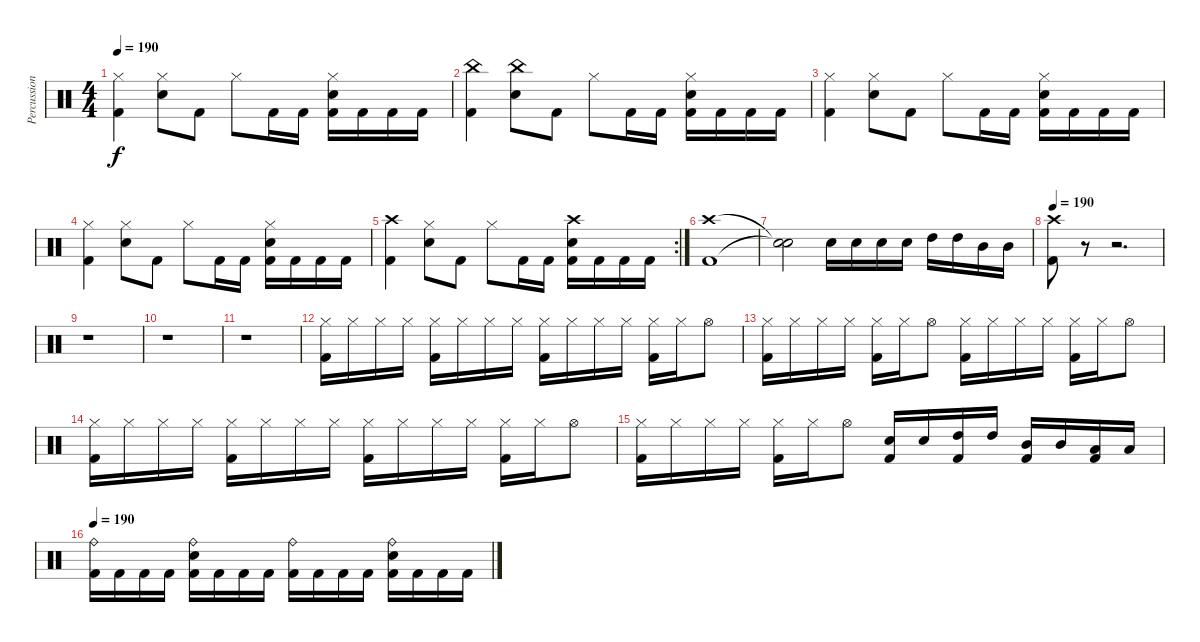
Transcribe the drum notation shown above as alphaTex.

\track ("Percussion" "Percussion") {instrument percussion}
\staff {score}
\articulation defaults
\ts (4 4)
\tempo 190
\clef neutral
\ks c
("Hi-Hat (closed)" "Kick (hit) 2").4{dy f} ("Hi-Hat (closed)" "Snare (hit) 2").8 "Kick (hit) 2".8 "Hi-Hat (closed)".8 "Kick (hit) 2".16 "Kick (hit) 2".16 ("Hi-Hat (closed)" "Snare (hit) 2" "Kick (hit) 2").16 "Kick (hit) 2".16 "Kick (hit) 2".16 "Kick (hit) 2".16 |
("China (hit)" "Kick (hit) 2").4 ("China (hit)" "Snare (hit) 2").8 "Kick (hit) 2".8 "Hi-Hat (closed)".8 "Kick (hit) 2".16 "Kick (hit) 2".16 ("Hi-Hat (closed)" "Snare (hit) 2" "Kick (hit) 2").16 "Kick (hit) 2".16 "Kick (hit) 2".16 "Kick (hit) 2".16 |
("Hi-Hat (closed)" "Kick (hit) 2").4 ("Hi-Hat (closed)" "Snare (hit) 2").8 "Kick (hit) 2".8 "Hi-Hat (closed)".8 "Kick (hit) 2".16 "Kick (hit) 2".16 ("Hi-Hat (closed)" "Snare (hit) 2" "Kick (hit) 2").16 "Kick (hit) 2".16 "Kick (hit) 2".16 "Kick (hit) 2".16 |
("Hi-Hat (closed)" "Kick (hit) 2").4 ("Hi-Hat (closed)" "Snare (hit) 2").8 "Kick (hit) 2".8 "Hi-Hat (closed)".8 "Kick (hit) 2".16 "Kick (hit) 2".16 ("Hi-Hat (closed)" "Snare (hit) 2" "Kick (hit) 2").16 "Kick (hit) 2".16 "Kick (hit) 2".16 "Kick (hit) 2".16 |
\rc 2
("Crash high (hit)" "Kick (hit) 2").4 ("Hi-Hat (closed)" "Snare (hit) 2").8 "Kick (hit) 2".8 "Hi-Hat (closed)".8 "Kick (hit) 2".16 "Kick (hit) 2".16 ("Crash high (hit)" "Snare (hit) 2" "Kick (hit) 2").16 "Kick (hit) 2".16 "Kick (hit) 2".16 "Kick (hit) 2".16 |
("Kick (hit) 2" "Crash high (hit)").1 |
("Snare (hit)"{t} "Snare (hit)"{t}).2 "Snare (hit) 2".16 "Snare (hit) 2".16 "Snare (hit) 2".16 "Snare (hit) 2".16 "High Tom (hit)".16 "High Tom (hit)".16 "Mid Tom (hit)".16 "Mid Tom (hit)".16 |
\tempo 190
("Kick (hit) 2" "Crash high (hit)").8 r.8 r.2{d} |
r.1 |
r.1 |
r.1 |
("Hi-Hat (closed)" "Kick (hit) 2").16 "Hi-Hat (closed)".16 "Hi-Hat (closed)".16 "Hi-Hat (closed)".16 ("Hi-Hat (closed)" "Kick (hit) 2").16 "Hi-Hat (closed)".16 "Hi-Hat (closed)".16 "Hi-Hat (closed)".16 ("Hi-Hat (closed)" "Kick (hit) 2").16 "Hi-Hat (closed)".16 "Hi-Hat (closed)".16 "Hi-Hat (closed)".16 ("Hi-Hat (closed)" "Kick (hit) 2").16 "Hi-Hat (closed)".16 "Hi-Hat (open)".8 |
("Hi-Hat (closed)" "Kick (hit) 2").16 "Hi-Hat (closed)".16 "Hi-Hat (closed)".16 "Hi-Hat (closed)".16 ("Hi-Hat (closed)" "Kick (hit) 2").16 "Hi-Hat (closed)".16 "Hi-Hat (open)".8 ("Hi-Hat (closed)" "Kick (hit) 2").16 "Hi-Hat (closed)".16 "Hi-Hat (closed)".16 "Hi-Hat (closed)".16 ("Hi-Hat (closed)" "Kick (hit) 2").16 "Hi-Hat (closed)".16 "Hi-Hat (open)".8 |
("Hi-Hat (closed)" "Kick (hit) 2").16 "Hi-Hat (closed)".16 "Hi-Hat (closed)".16 "Hi-Hat (closed)".16 ("Hi-Hat (closed)" "Kick (hit) 2").16 "Hi-Hat (closed)".16 "Hi-Hat (closed)".16 "Hi-Hat (closed)".16 ("Hi-Hat (closed)" "Kick (hit) 2").16 "Hi-Hat (closed)".16 "Hi-Hat (closed)".16 "Hi-Hat (closed)".16 ("Hi-Hat (closed)" "Kick (hit) 2").16 "Hi-Hat (closed)".16 "Hi-Hat (open)".8 |
("Hi-Hat (closed)" "Kick (hit) 2").16 "Hi-Hat (closed)".16 "Hi-Hat (closed)".16 "Hi-Hat (closed)".16 ("Hi-Hat (closed)" "Kick (hit) 2").16 "Hi-Hat (closed)".16 "Hi-Hat (open)".8 ("Snare (hit) 2" "Kick (hit) 2").16 "Snare (hit) 2".16 ("High Tom (hit)" "Kick (hit) 2").16 "High Tom (hit)".16 ("Mid Tom (hit)" "Kick (hit) 2").16 "Mid Tom (hit)".16 ("Low Tom (hit)" "Kick (hit) 2").16 "Low Tom (hit)".16 |
\tempo 190
("Ride (bell)" "Kick (hit) 2").16 "Kick (hit) 2".16 "Kick (hit) 2".16 "Kick (hit) 2".16 ("Ride (bell)" "Snare (hit) 2" "Kick (hit) 2").16 "Kick (hit) 2".16 "Kick (hit) 2".16 "Kick (hit) 2".16 ("Ride (bell)" "Kick (hit) 2").16 "Kick (hit) 2".16 "Kick (hit) 2".16 "Kick (hit) 2".16 ("Ride (bell)" "Snare (hit) 2" "Kick (hit) 2").16 "Kick (hit) 2".16 "Kick (hit) 2".16 "Kick (hit) 2".16
